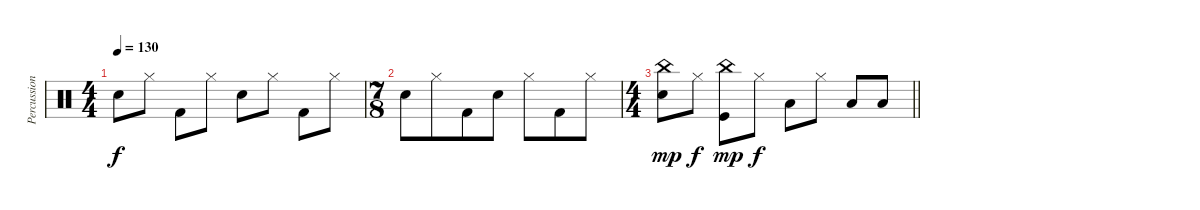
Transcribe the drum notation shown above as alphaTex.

\track ("Percussion" "Percussion") {instrument percussion}
\staff {score}
\articulation defaults
\ts (4 4)
\tempo 130
\clef neutral
\ks c "Electric Snare (hit)".8{dy f} "Hi-Hat (closed)".8 "Kick (hit) 2".8 "Hi-Hat (closed)".8 "Electric Snare (hit)".8 "Hi-Hat (closed)".8 "Kick (hit) 2".8 "Hi-Hat (closed)".8
|
\ts (7 8)
"Electric Snare (hit)".8 "Hi-Hat (closed)".8 "Kick (hit) 2".8 "Electric Snare (hit)".8 "Hi-Hat (closed)".8 "Kick (hit) 2".8 "Hi-Hat (closed)".8 |
\ts (4 4)
\barLineRight lightlight
("China (hit)" "Electric Snare (hit)").8{dy mp} "Hi-Hat (closed)".8{dy f} ("China (hit)" "Kick (hit)").8{dy mp} "Hi-Hat (closed)".8{dy f} "Low Floor Tom (hit)".8 "Hi-Hat (closed)".8 "Low Floor Tom (hit)".8 "Low Tom (hit)".8
